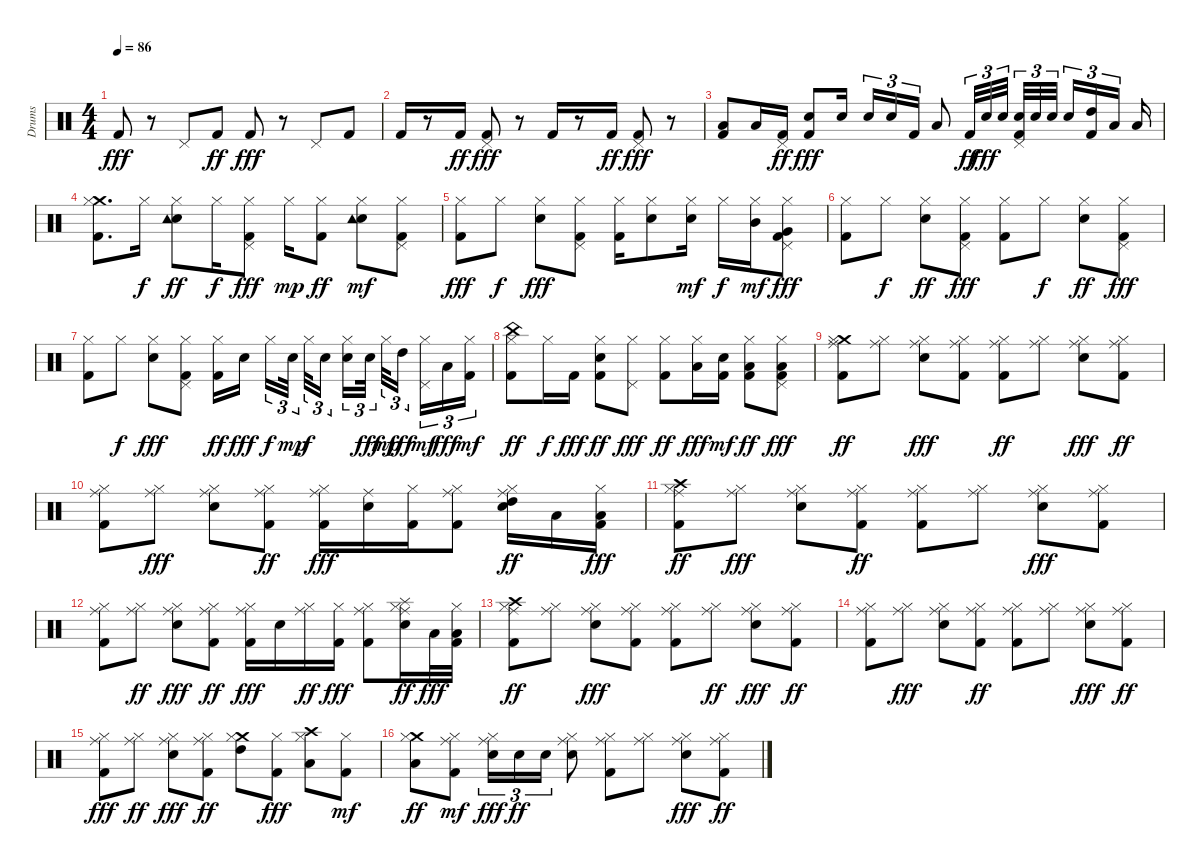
\track ("Drums" "Drums") {instrument percussion}
\staff {score}
\articulation defaults
\ts (4 4)
\tempo 86
\clef neutral
\ks c "Kick (hit) 2".8{dy fff}
r.8 "Pedal Hi-Hat (hit)".8 "Kick (hit) 2".8{dy ff} "Kick (hit) 2".8{dy fff} r.8 "Pedal Hi-Hat (hit)".8 "Kick (hit) 2".8 |
"Kick (hit) 2".16 r.8 "Kick (hit) 2".16{dy ff} ("Kick (hit) 2" "Pedal Hi-Hat (hit)").8{dy fff} r.8 "Kick (hit) 2".16 r.8 "Kick (hit) 2".16{dy ff} ("Kick (hit) 2" "Pedal Hi-Hat (hit)").8{dy fff} r.8 |
("Kick (hit) 2" "Low Floor Tom (hit)").8 "Low Floor Tom (hit)".16 ("Kick (hit) 2" "Pedal Hi-Hat (hit)").16{dy ff} ("Kick (hit) 2" "Snare (hit) 2").8{dy fff} "Snare (hit) 2".16 "Snare (hit) 2".16{tu (3 2)} "Snare (hit) 2".16{tu (3 2)} "Kick (hit) 2".16{tu (3 2)} "Low Floor Tom (hit)".8 "Kick (hit) 2".32{tu (3 2) dy ff} "Snare (hit) 2".32{tu (3 2) dy fff} "Snare (hit) 2".32{tu (3 2)} ("Kick (hit) 2" "Pedal Hi-Hat (hit)" "Snare (hit) 2").32{tu (3 2)} "Snare (hit) 2".32{tu (3 2)} "Snare (hit) 2".32{tu (3 2)} "Snare (hit) 2".16{tu (3 2)} ("Kick (hit) 2" "High Tom (hit)").16{tu (3 2)} "Low Tom (hit)".16{tu (3 2)} "Low Floor Tom (hit)".16 |
("Kick (hit) 2" "Crash medium (hit)" "Hi-Hat (closed)").8{d} "Hi-Hat (closed)".16{dy f} ("Snare (hit) 2" "Tambourine (hit)" "Hi-Hat (closed)").8{dy ff} "Hi-Hat (closed)".16{dy f} ("Kick (hit) 2" "Pedal Hi-Hat (hit)" "Hi-Hat (closed)").8{dy fff} "Hi-Hat (closed)".16{dy mp} ("Kick (hit) 2" "Hi-Hat (closed)").8{dy ff} ("Snare (hit) 2" "Tambourine (hit)" "Hi-Hat (closed)").8{dy mf} ("Kick (hit) 2" "Pedal Hi-Hat (hit)" "Hi-Hat (closed)").8 |
("Kick (hit) 2" "Hi-Hat (closed)").8{dy fff} "Hi-Hat (closed)".8{dy f} ("Snare (hit) 2" "Hi-Hat (closed)").8{dy fff} ("Kick (hit) 2" "Pedal Hi-Hat (hit)" "Hi-Hat (closed)").8 ("Kick (hit) 2" "Hi-Hat (closed)").16 ("Snare (hit) 2" "Hi-Hat (closed)").8 ("Snare (hit) 2" "Hi-Hat (closed)").16{dy mf} "Hi-Hat (closed)".16{dy f} ("Mid Tom (hit)" "Hi-Hat (closed)").16{dy mf} ("Kick (hit) 2" "Very Low Tom (hit)" "Pedal Hi-Hat (hit)" "Hi-Hat (closed)").8{dy fff} |
("Kick (hit) 2" "Hi-Hat (closed)").8 "Hi-Hat (closed)".8{dy f} ("Snare (hit) 2" "Hi-Hat (closed)").8{dy ff} ("Kick (hit) 2" "Pedal Hi-Hat (hit)" "Hi-Hat (closed)").8{dy fff} ("Kick (hit) 2" "Hi-Hat (closed)").8 "Hi-Hat (closed)".8{dy f} ("Snare (hit) 2" "Hi-Hat (closed)").8{dy ff} ("Kick (hit) 2" "Pedal Hi-Hat (hit)" "Hi-Hat (closed)").8{dy fff} |
("Kick (hit) 2" "Hi-Hat (closed)").8 "Hi-Hat (closed)".8{dy f} ("Snare (hit) 2" "Hi-Hat (closed)").8{dy fff} ("Kick (hit) 2" "Pedal Hi-Hat (hit)" "Hi-Hat (closed)").8 ("Kick (hit) 2" "Hi-Hat (closed)").16{dy ff} "Snare (hit) 2".16{dy fff} "Hi-Hat (closed)".16{tu (3 2) dy f} "Snare (hit) 2".32{tu (3 2) dy mp} "Hi-Hat (closed)".32{tu (3 2) dy f} "Snare (hit) 2".16{tu (3 2)} ("Snare (hit) 2" "Hi-Hat (closed)").16{tu (3 2)} "Snare (hit) 2".32{tu (3 2) dy fff} "Hi-Hat (closed)".32{tu (3 2) dy mp} "High Tom (hit)".16{tu (3 2) dy fff} ("Pedal Hi-Hat (hit)" "Hi-Hat (closed)").16{tu (3 2) dy mf} "Low Floor Tom (hit)".16{tu (3 2) dy fff} ("Kick (hit) 2" "Hi-Hat (closed)").16{tu (3 2) dy mf} |
("Kick (hit) 2" "China (hit)" "Hi-Hat (closed)").8{dy ff} "Hi-Hat (closed)".16{dy f} "Kick (hit) 2".16{dy fff} ("Kick (hit) 2" "Snare (hit) 2" "Hi-Hat (closed)").8{dy ff} ("Pedal Hi-Hat (hit)" "Hi-Hat (closed)").8{dy fff} ("Kick (hit) 2" "Hi-Hat (closed)").8{dy ff} ("Low Floor Tom (hit)" "Hi-Hat (closed)").16{dy fff} ("Kick (hit) 2" "Snare (hit) 2").16{dy mf} ("Kick (hit) 2" "Low Tom (hit)" "Hi-Hat (closed)").8{dy ff} ("Kick (hit) 2" "Low Floor Tom (hit)" "Pedal Hi-Hat (hit)" "Hi-Hat (closed)").8{dy fff} |
("Kick (hit) 2" "Ride (middle)" "Crash medium (hit)" "Hi-Hat (closed)").8{dy ff} ("Ride (middle)" "Hi-Hat (closed)").8 ("Snare (hit) 2" "Ride (middle)" "Hi-Hat (closed)").8{dy fff} ("Kick (hit) 2" "Ride (middle)" "Hi-Hat (closed)").8 ("Kick (hit) 2" "Ride (middle)" "Hi-Hat (closed)").8{dy ff} ("Ride (middle)" "Hi-Hat (closed)").8 ("Snare (hit) 2" "Ride (middle)" "Hi-Hat (closed)").8{dy fff} ("Kick (hit) 2" "Ride (middle)" "Hi-Hat (closed)").8{dy ff} |
("Kick (hit) 2" "Ride (middle)" "Hi-Hat (closed)").8 ("Ride (middle)" "Hi-Hat (closed)").8{dy fff} ("Snare (hit) 2" "Ride (middle)" "Hi-Hat (closed)").8 ("Kick (hit) 2" "Ride (middle)" "Hi-Hat (closed)").8{dy ff} ("Kick (hit) 2" "Ride (middle)" "Hi-Hat (closed)").16{dy fff} ("Snare (hit) 2" "Ride (middle)").16 ("Kick (hit) 2" "Hi-Hat (closed)").16 ("Kick (hit) 2" "Ride (middle)" "Hi-Hat (closed)").8 ("Snare (hit) 2" "Ride (middle)" "High Tom (hit)" "Hi-Hat (closed)").16{dy ff} "Low Tom (hit)".16 ("Kick (hit) 2" "Low Floor Tom (hit)" "Hi-Hat (closed)").16{dy fff} |
("Kick (hit) 2" "Ride (middle)" "Crash high (hit)" "Hi-Hat (closed)").8{dy ff} ("Ride (middle)" "Hi-Hat (closed)").8{dy fff} ("Snare (hit) 2" "Ride (middle)" "Hi-Hat (closed)").8 ("Kick (hit) 2" "Ride (middle)" "Hi-Hat (closed)").8{dy ff} ("Kick (hit) 2" "Ride (middle)" "Hi-Hat (closed)").8 ("Ride (middle)" "Hi-Hat (closed)").8 ("Snare (hit) 2" "Ride (middle)" "Hi-Hat (closed)").8{dy fff} ("Kick (hit) 2" "Ride (middle)" "Hi-Hat (closed)").8 |
("Kick (hit) 2" "Ride (middle)" "Hi-Hat (closed)").8 ("Ride (middle)" "Hi-Hat (closed)").8{dy ff} ("Snare (hit) 2" "Ride (middle)" "Hi-Hat (closed)").8{dy fff} ("Kick (hit) 2" "Ride (middle)" "Hi-Hat (closed)").8{dy ff} ("Kick (hit) 2" "Ride (middle)" "Hi-Hat (closed)").16{dy fff} "Snare (hit) 2".16 ("Ride (middle)" "Hi-Hat (closed)").16{dy ff} ("Kick (hit) 2" "Hi-Hat (closed)").16{dy fff} ("Kick (hit) 2" "Ride (middle)" "Hi-Hat (closed)").8 ("Snare (hit) 2" "Ride (middle)" "Splash (hit)" "Hi-Hat (closed)").16{dy ff} "Low Tom (hit)".32{dy fff} ("Kick (hit) 2" "Low Floor Tom (hit)" "Hi-Hat (closed)").32 |
("Kick (hit) 2" "Ride (middle)" "Crash high (hit)" "Hi-Hat (closed)").8{dy ff} ("Ride (middle)" "Hi-Hat (closed)").8 ("Snare (hit) 2" "Ride (middle)" "Hi-Hat (closed)").8{dy fff} ("Kick (hit) 2" "Ride (middle)" "Hi-Hat (closed)").8 ("Kick (hit) 2" "Ride (middle)" "Hi-Hat (closed)").8 ("Ride (middle)" "Hi-Hat (closed)").8{dy ff} ("Snare (hit) 2" "Ride (middle)" "Hi-Hat (closed)").8{dy fff} ("Kick (hit) 2" "Ride (middle)" "Hi-Hat (closed)").8{dy ff} |
("Kick (hit) 2" "Ride (middle)" "Hi-Hat (closed)").8 ("Ride (middle)" "Hi-Hat (closed)").8{dy fff} ("Snare (hit) 2" "Ride (middle)" "Hi-Hat (closed)").8 ("Kick (hit) 2" "Ride (middle)" "Hi-Hat (closed)").8{dy ff} ("Kick (hit) 2" "Ride (middle)" "Hi-Hat (closed)").8 ("Ride (middle)" "Hi-Hat (closed)").8 ("Snare (hit) 2" "Ride (middle)" "Hi-Hat (closed)").8{dy fff} ("Kick (hit) 2" "Ride (middle)" "Hi-Hat (closed)").8{dy ff} |
("Kick (hit) 2" "Ride (middle)" "Hi-Hat (closed)").8{dy fff} ("Ride (middle)" "Hi-Hat (closed)").8{dy ff} ("Snare (hit) 2" "Ride (middle)" "Hi-Hat (closed)").8{dy fff} ("Kick (hit) 2" "Ride (middle)" "Hi-Hat (closed)").8{dy ff} ("High Tom (hit)" "Crash medium (hit)" "Hi-Hat (closed)").8 ("Kick (hit) 2" "Hi-Hat (closed)").8{dy fff} ("Low Tom (hit)" "Crash high (hit)" "Hi-Hat (closed)").8 ("Kick (hit) 2" "Hi-Hat (closed)").8{dy mf} |
("Low Floor Tom (hit)" "Crash medium (hit)" "Hi-Hat (closed)").8{dy ff} ("Kick (hit) 2" "Ride (middle)" "Hi-Hat (closed)").8{dy mf} ("Snare (hit) 2" "Ride (middle)" "Hi-Hat (closed)").16{tu (3 2) dy fff} "Snare (hit) 2".16{tu (3 2) dy ff} "Snare (hit) 2".16{tu (3 2)} ("Snare (hit) 2" "Ride (middle)" "Hi-Hat (closed)").8 ("Kick (hit) 2" "Ride (middle)" "Hi-Hat (closed)").8 ("Ride (middle)" "Hi-Hat (closed)").8 ("Snare (hit) 2" "Ride (middle)" "Hi-Hat (closed)").8{dy fff} ("Kick (hit) 2" "Ride (middle)" "Hi-Hat (closed)").8{dy ff}
